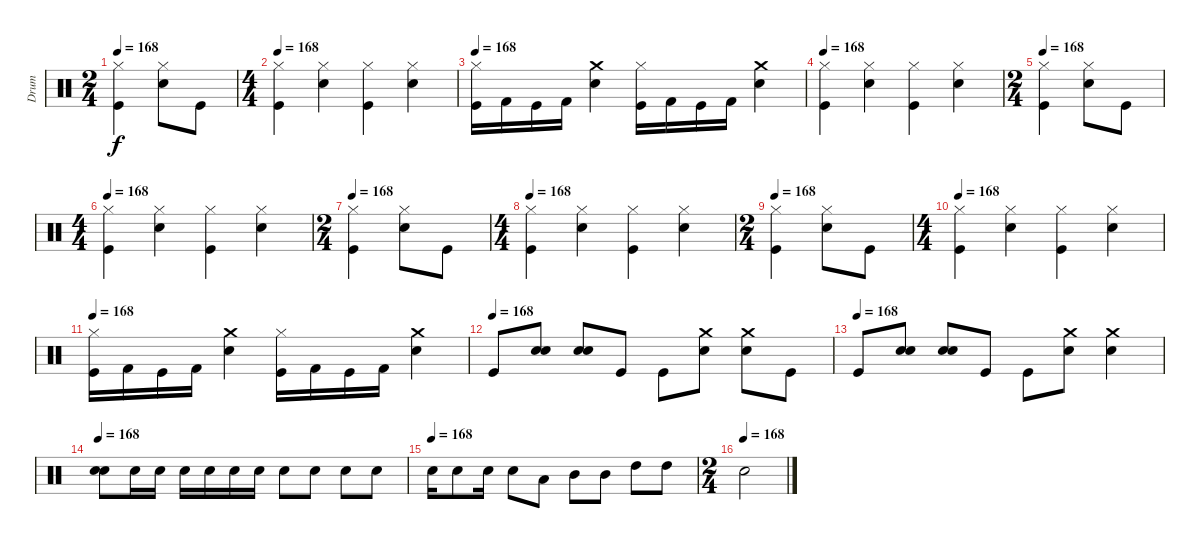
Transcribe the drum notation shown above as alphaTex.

\track ("Drum" "Drum") {instrument percussion}
\staff {score}
\articulation defaults
\ts (2 4)
\tempo 168
\clef neutral
\ks c
("Hi-Hat (closed)" "Kick (hit)").4{dy f} ("Hi-Hat (closed)" "Snare (hit) 2").8 "Kick (hit)".8 |
\ts (4 4)
\tempo 168
("Hi-Hat (closed)" "Kick (hit)").4 ("Hi-Hat (closed)" "Snare (hit) 2").4 ("Hi-Hat (closed)" "Kick (hit)").4 ("Hi-Hat (closed)" "Snare (hit) 2").4 |
\tempo 168
("Hi-Hat (closed)" "Kick (hit)").16 "Kick (hit) 2".16 "Kick (hit)".16 "Kick (hit) 2".16 ("Crash medium (hit)" "Snare (hit) 2").4 ("Hi-Hat (closed)" "Kick (hit)").16 "Kick (hit) 2".16 "Kick (hit)".16 "Kick (hit) 2".16 ("Crash medium (hit)" "Snare (hit) 2").4 |
\tempo 168
("Hi-Hat (closed)" "Kick (hit)").4 ("Hi-Hat (closed)" "Snare (hit) 2").4 ("Hi-Hat (closed)" "Kick (hit)").4 ("Hi-Hat (closed)" "Snare (hit) 2").4 |
\ts (2 4)
\tempo 168
("Hi-Hat (closed)" "Kick (hit)").4 ("Hi-Hat (closed)" "Snare (hit) 2").8 "Kick (hit)".8 |
\ts (4 4)
\tempo 168
("Hi-Hat (closed)" "Kick (hit)").4 ("Hi-Hat (closed)" "Snare (hit) 2").4 ("Hi-Hat (closed)" "Kick (hit)").4 ("Hi-Hat (closed)" "Snare (hit) 2").4 |
\ts (2 4)
\tempo 168
("Hi-Hat (closed)" "Kick (hit)").4 ("Hi-Hat (closed)" "Snare (hit) 2").8 "Kick (hit)".8 |
\ts (4 4)
\tempo 168
("Hi-Hat (closed)" "Kick (hit)").4 ("Hi-Hat (closed)" "Snare (hit) 2").4 ("Hi-Hat (closed)" "Kick (hit)").4 ("Hi-Hat (closed)" "Snare (hit) 2").4 |
\ts (2 4)
\tempo 168
("Hi-Hat (closed)" "Kick (hit)").4 ("Hi-Hat (closed)" "Snare (hit) 2").8 "Kick (hit)".8 |
\ts (4 4)
\tempo 168
("Hi-Hat (closed)" "Kick (hit)").4 ("Hi-Hat (closed)" "Snare (hit) 2").4 ("Hi-Hat (closed)" "Kick (hit)").4 ("Hi-Hat (closed)" "Snare (hit) 2").4 |
\tempo 168
("Hi-Hat (closed)" "Kick (hit)").16 "Kick (hit) 2".16 "Kick (hit)".16 "Kick (hit) 2".16 ("Crash medium (hit)" "Snare (hit) 2").4 ("Hi-Hat (closed)" "Kick (hit)").16 "Kick (hit) 2".16 "Kick (hit)".16 "Kick (hit) 2".16 ("Crash medium (hit)" "Snare (hit) 2").4 |
\tempo (168)
"Kick (hit)".8 ("Snare (hit) 2" "Snare (hit) 2").8 ("Snare (hit) 2" "Snare (hit) 2").8 "Kick (hit)".8 "Kick (hit)".8 ("Crash medium (hit)" "Snare (hit) 2").8 ("Crash medium (hit)" "Snare (hit) 2").8 "Kick (hit)".8 |
\tempo (168)
"Kick (hit)".8 ("Snare (hit) 2" "Snare (hit) 2").8 ("Snare (hit) 2" "Snare (hit) 2").8 "Kick (hit)".8 "Kick (hit)".8 ("Crash medium (hit)" "Snare (hit) 2").8 ("Crash medium (hit)" "Snare (hit) 2").4 |
\tempo 168
("Snare (hit) 2" "Snare (hit) 2").8 "Snare (hit) 2".16 "Snare (hit) 2".16 "Snare (hit) 2".16 "Snare (hit) 2".16 "Snare (hit) 2".16 "Snare (hit) 2".16 "Snare (hit) 2".8 "Snare (hit) 2".8 "Snare (hit) 2".8 "Snare (hit) 2".8 |
\tempo (168)
"Snare (hit) 2".16 "Snare (hit) 2".8 "Snare (hit) 2".16 "Snare (hit) 2".8 "Low Tom (hit)".8 "Mid Tom (hit)".8 "Mid Tom (hit)".8 "High Tom (hit)".8 "High Tom (hit)".8 |
\ts (2 4)
\tempo (168)
"Snare (hit) 2".2
